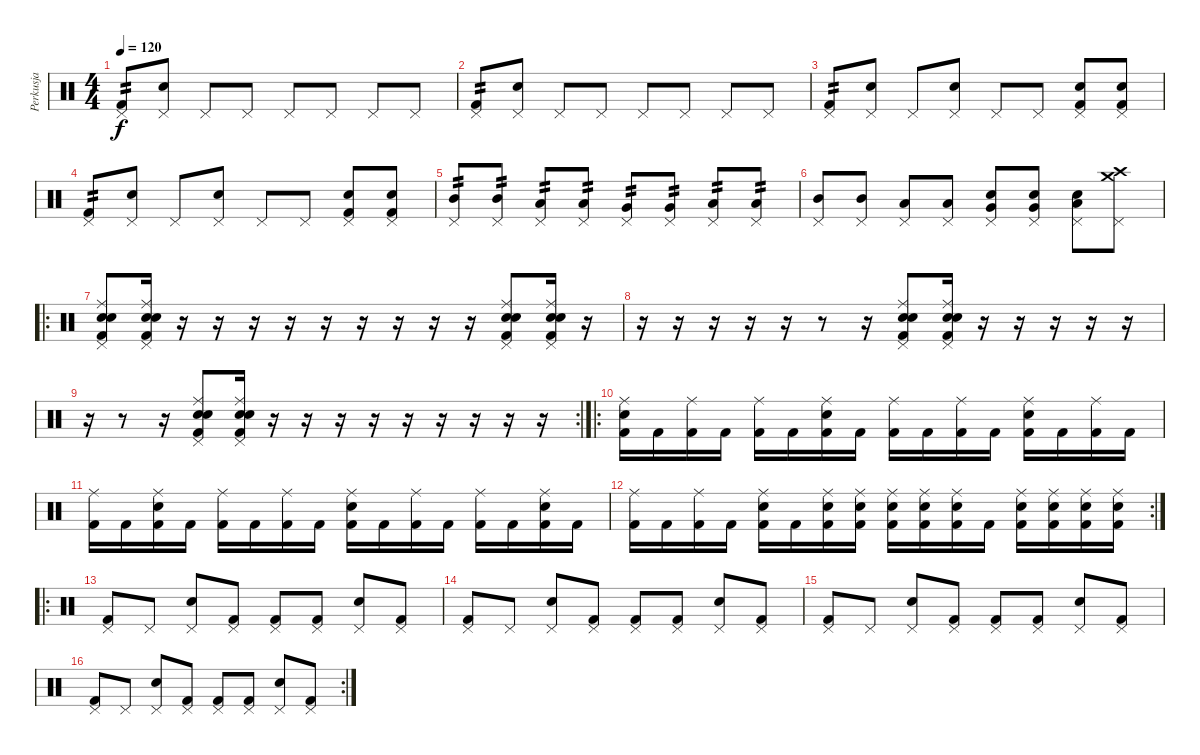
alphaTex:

\track ("Perkusja" "Perkusja") {instrument percussion}
\staff {score}
\articulation defaults
\ts (4 4)
\tempo 120
\clef neutral
\ks c
("Pedal Hi-Hat (hit)" "Kick (hit) 2").8{tp 2 dy f} ("Pedal Hi-Hat (hit)" "Electric Snare (hit)").8 "Pedal Hi-Hat (hit)".8 "Pedal Hi-Hat (hit)".8 "Pedal Hi-Hat (hit)".8 "Pedal Hi-Hat (hit)".8 "Pedal Hi-Hat (hit)".8 "Pedal Hi-Hat (hit)".8 |
("Pedal Hi-Hat (hit)" "Kick (hit) 2").8{tp 2} ("Pedal Hi-Hat (hit)" "Electric Snare (hit)").8 "Pedal Hi-Hat (hit)".8 "Pedal Hi-Hat (hit)".8 "Pedal Hi-Hat (hit)".8 "Pedal Hi-Hat (hit)".8 "Pedal Hi-Hat (hit)".8 "Pedal Hi-Hat (hit)".8 |
("Pedal Hi-Hat (hit)" "Kick (hit) 2").8{tp 2} ("Pedal Hi-Hat (hit)" "Electric Snare (hit)").8 "Pedal Hi-Hat (hit)".8 ("Pedal Hi-Hat (hit)" "Snare (hit) 2").8 "Pedal Hi-Hat (hit)".8 "Pedal Hi-Hat (hit)".8 ("Pedal Hi-Hat (hit)" "Kick (hit) 2" "Snare (hit) 2").8 ("Pedal Hi-Hat (hit)" "Kick (hit) 2" "Snare (hit) 2").8 |
("Pedal Hi-Hat (hit)" "Kick (hit) 2").8{tp 2} ("Pedal Hi-Hat (hit)" "Electric Snare (hit)").8 "Pedal Hi-Hat (hit)".8 ("Pedal Hi-Hat (hit)" "Snare (hit) 2").8 "Pedal Hi-Hat (hit)".8 "Pedal Hi-Hat (hit)".8 ("Pedal Hi-Hat (hit)" "Kick (hit) 2" "Snare (hit) 2").8 ("Pedal Hi-Hat (hit)" "Kick (hit) 2" "Snare (hit) 2").8 |
("Pedal Hi-Hat (hit)" "Mid Tom (hit)").8{tp 2} ("Pedal Hi-Hat (hit)" "Mid Tom (hit)").8{tp 2} ("Pedal Hi-Hat (hit)" "Low Tom (hit)").8{tp 2} ("Pedal Hi-Hat (hit)" "Low Tom (hit)").8{tp 2} ("Pedal Hi-Hat (hit)" "Very Low Tom (hit)").8{tp 2} ("Pedal Hi-Hat (hit)" "Very Low Tom (hit)").8{tp 2} ("Pedal Hi-Hat (hit)" "Low Floor Tom (hit)").8{tp 2} ("Pedal Hi-Hat (hit)" "Low Floor Tom (hit)").8{tp 2} |
("Pedal Hi-Hat (hit)" "Mid Tom (hit)").8 ("Pedal Hi-Hat (hit)" "Mid Tom (hit)").8 ("Pedal Hi-Hat (hit)" "Low Tom (hit)").8 ("Pedal Hi-Hat (hit)" "Low Tom (hit)").8 ("Pedal Hi-Hat (hit)" "Very Low Tom (hit)" "Snare (hit) 2").8 ("Pedal Hi-Hat (hit)" "Very Low Tom (hit)" "Snare (hit) 2").8 ("Pedal Hi-Hat (hit)" "Low Floor Tom (hit)" "Snare (hit) 2").8 ("Pedal Hi-Hat (hit)" "Crash high (hit)" "Crash medium (hit)").8 |
\ro
("Electric Snare (hit)" "Ride (middle)" "Snare (hit) 2" "Kick (hit) 2" "Pedal Hi-Hat (hit)").8 ("Electric Snare (hit)" "Ride (middle)" "Snare (hit) 2" "Kick (hit) 2" "Pedal Hi-Hat (hit)").16 r.16 r.16 r.16 r.16 r.16 r.16 r.16 r.16 r.16 ("Electric Snare (hit)" "Ride (middle)" "Snare (hit) 2" "Kick (hit) 2" "Pedal Hi-Hat (hit)").8 ("Electric Snare (hit)" "Ride (middle)" "Snare (hit) 2" "Kick (hit) 2" "Pedal Hi-Hat (hit)").16 r.16 |
r.16 r.16 r.16 r.16 r.16 r.8 r.16 ("Electric Snare (hit)" "Ride (middle)" "Snare (hit) 2" "Kick (hit) 2" "Pedal Hi-Hat (hit)").8 ("Electric Snare (hit)" "Ride (middle)" "Snare (hit) 2" "Kick (hit) 2" "Pedal Hi-Hat (hit)").16 r.16 r.16 r.16 r.16 r.16 |
\rc 2
r.16 r.8 r.16 ("Electric Snare (hit)" "Ride (middle)" "Snare (hit) 2" "Kick (hit) 2" "Pedal Hi-Hat (hit)").8 ("Electric Snare (hit)" "Ride (middle)" "Snare (hit) 2" "Kick (hit) 2" "Pedal Hi-Hat (hit)").16 r.16 r.16 r.16 r.16 r.16 r.16 r.16 r.16 r.16 |
\ro
("Ride (middle)" "Snare (hit) 2" "Kick (hit) 2").16 "Kick (hit) 2".16 ("Ride (middle)" "Kick (hit) 2").16 "Kick (hit) 2".16 ("Ride (middle)" "Kick (hit) 2").16 "Kick (hit) 2".16 ("Ride (middle)" "Snare (hit) 2" "Kick (hit) 2").16 "Kick (hit) 2".16 ("Ride (middle)" "Kick (hit) 2").16 "Kick (hit) 2".16 ("Ride (middle)" "Kick (hit) 2").16 "Kick (hit) 2".16 ("Ride (middle)" "Snare (hit) 2" "Kick (hit) 2").16 "Kick (hit) 2".16 ("Ride (middle)" "Kick (hit) 2").16 "Kick (hit) 2".16 |
("Ride (middle)" "Kick (hit) 2").16 "Kick (hit) 2".16 ("Ride (middle)" "Snare (hit) 2" "Kick (hit) 2").16 "Kick (hit) 2".16 ("Ride (middle)" "Kick (hit) 2").16 "Kick (hit) 2".16 ("Ride (middle)" "Kick (hit) 2").16 "Kick (hit) 2".16 ("Ride (middle)" "Snare (hit) 2" "Kick (hit) 2").16 "Kick (hit) 2".16 ("Ride (middle)" "Kick (hit) 2").16 "Kick (hit) 2".16 ("Ride (middle)" "Kick (hit) 2").16 "Kick (hit) 2".16 ("Ride (middle)" "Snare (hit) 2" "Kick (hit) 2").16 "Kick (hit) 2".16 |
\rc 2
("Ride (middle)" "Kick (hit) 2").16 "Kick (hit) 2".16 ("Ride (middle)" "Kick (hit) 2").16 "Kick (hit) 2".16 ("Ride (middle)" "Snare (hit) 2" "Kick (hit) 2").16 "Kick (hit) 2".16 ("Ride (middle)" "Snare (hit) 2" "Kick (hit) 2").16 ("Ride (middle)" "Snare (hit) 2" "Kick (hit) 2").16 ("Ride (middle)" "Snare (hit) 2" "Kick (hit) 2").16 ("Ride (middle)" "Snare (hit) 2" "Kick (hit) 2").16 ("Ride (middle)" "Snare (hit) 2" "Kick (hit) 2").16 "Kick (hit) 2".16 ("Ride (middle)" "Snare (hit) 2" "Kick (hit) 2").16 ("Ride (middle)" "Snare (hit) 2" "Kick (hit) 2").16 ("Ride (middle)" "Snare (hit) 2" "Kick (hit) 2").16 ("Ride (middle)" "Snare (hit) 2" "Kick (hit) 2").16 |
\ro
("Pedal Hi-Hat (hit)" "Kick (hit) 2").8 "Pedal Hi-Hat (hit)".8 ("Pedal Hi-Hat (hit)" "Snare (hit) 2").8 ("Pedal Hi-Hat (hit)" "Kick (hit) 2").8 ("Pedal Hi-Hat (hit)" "Kick (hit) 2").8 ("Pedal Hi-Hat (hit)" "Kick (hit) 2").8 ("Pedal Hi-Hat (hit)" "Snare (hit) 2").8 ("Pedal Hi-Hat (hit)" "Kick (hit) 2").8 |
("Pedal Hi-Hat (hit)" "Kick (hit) 2").8 "Pedal Hi-Hat (hit)".8 ("Pedal Hi-Hat (hit)" "Snare (hit) 2").8 ("Pedal Hi-Hat (hit)" "Kick (hit) 2").8 ("Pedal Hi-Hat (hit)" "Kick (hit) 2").8 ("Pedal Hi-Hat (hit)" "Kick (hit) 2").8 ("Pedal Hi-Hat (hit)" "Snare (hit) 2").8 ("Pedal Hi-Hat (hit)" "Kick (hit) 2").8 |
("Pedal Hi-Hat (hit)" "Kick (hit) 2").8 "Pedal Hi-Hat (hit)".8 ("Pedal Hi-Hat (hit)" "Snare (hit) 2").8 ("Pedal Hi-Hat (hit)" "Kick (hit) 2").8 ("Pedal Hi-Hat (hit)" "Kick (hit) 2").8 ("Pedal Hi-Hat (hit)" "Kick (hit) 2").8 ("Pedal Hi-Hat (hit)" "Snare (hit) 2").8 ("Pedal Hi-Hat (hit)" "Kick (hit) 2").8 |
\rc 2
("Pedal Hi-Hat (hit)" "Kick (hit) 2").8 "Pedal Hi-Hat (hit)".8 ("Pedal Hi-Hat (hit)" "Snare (hit) 2").8 ("Pedal Hi-Hat (hit)" "Kick (hit) 2").8 ("Pedal Hi-Hat (hit)" "Kick (hit) 2").8 ("Pedal Hi-Hat (hit)" "Kick (hit) 2").8 ("Pedal Hi-Hat (hit)" "Snare (hit) 2").8 ("Pedal Hi-Hat (hit)" "Kick (hit) 2").8
